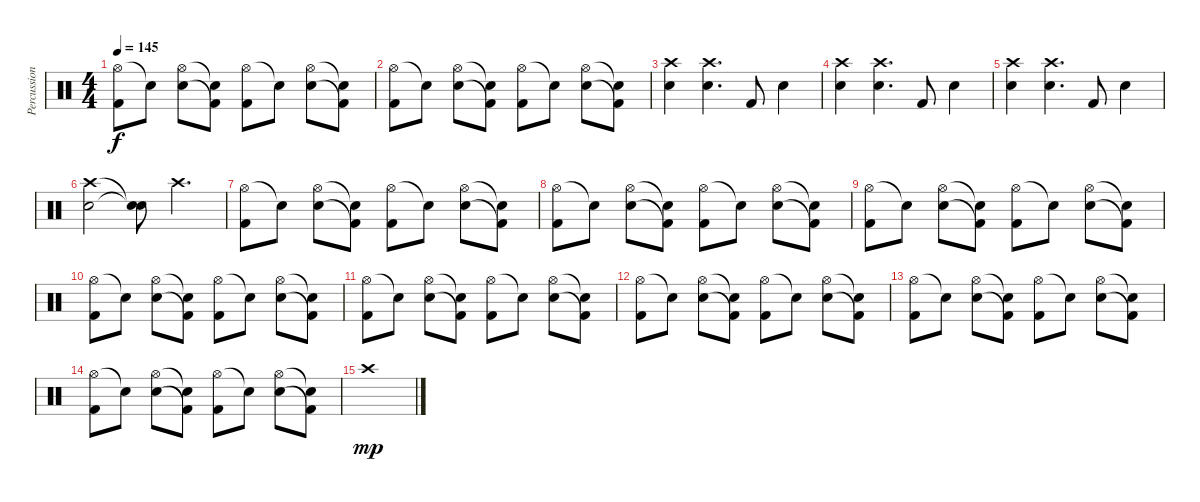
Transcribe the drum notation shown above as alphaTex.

\track ("Percussion" "Percussion") {instrument percussion}
\staff {score}
\articulation defaults
\ts (4 4)
\tempo 145
\clef neutral
\ks c
("Hi-Hat (open)" "Kick (hit) 2").8{dy f} "Snare (hit)"{t}.8 ("Hi-Hat (open)" "Electric Snare (hit)").8 ("Snare (hit)"{t} "Kick (hit) 2"{t}).8 ("Hi-Hat (open)" "Kick (hit) 2").8 "Snare (hit)"{t}.8 ("Hi-Hat (open)" "Electric Snare (hit)").8 ("Snare (hit)"{t} "Kick (hit) 2"{t}).8 |
("Hi-Hat (open)" "Kick (hit) 2").8 "Snare (hit)"{t}.8 ("Hi-Hat (open)" "Electric Snare (hit)").8 ("Snare (hit)"{t} "Kick (hit) 2"{t}).8 ("Hi-Hat (open)" "Kick (hit) 2").8 "Snare (hit)"{t}.8 ("Hi-Hat (open)" "Electric Snare (hit)").8 ("Snare (hit)"{t} "Kick (hit) 2"{t}).8 |
("Crash high (hit)" "Electric Snare (hit)").4 ("Crash high (hit)" "Electric Snare (hit)").4{d} "Kick (hit) 2".8 "Electric Snare (hit)".4 |
("Crash high (hit)" "Electric Snare (hit)").4 ("Crash high (hit)" "Electric Snare (hit)").4{d} "Kick (hit) 2".8 "Electric Snare (hit)".4 |
("Crash high (hit)" "Electric Snare (hit)").4 ("Crash high (hit)" "Electric Snare (hit)").4{d} "Kick (hit) 2".8 "Electric Snare (hit)".4 |
("Crash high (hit)" "Electric Snare (hit)").2 ("Snare (hit)"{t} "Snare (hit)"{t}).8 "Crash high (hit)".4{d} |
("Hi-Hat (open)" "Kick (hit) 2").8 "Snare (hit)"{t}.8 ("Hi-Hat (open)" "Electric Snare (hit)").8 ("Snare (hit)"{t} "Kick (hit) 2"{t}).8 ("Hi-Hat (open)" "Kick (hit) 2").8 "Snare (hit)"{t}.8 ("Hi-Hat (open)" "Electric Snare (hit)").8 ("Snare (hit)"{t} "Kick (hit) 2"{t}).8 |
("Hi-Hat (open)" "Kick (hit) 2").8 "Snare (hit)"{t}.8 ("Hi-Hat (open)" "Electric Snare (hit)").8 ("Snare (hit)"{t} "Kick (hit) 2"{t}).8 ("Hi-Hat (open)" "Kick (hit) 2").8 "Snare (hit)"{t}.8 ("Hi-Hat (open)" "Electric Snare (hit)").8 ("Snare (hit)"{t} "Kick (hit) 2"{t}).8 |
("Hi-Hat (open)" "Kick (hit) 2").8 "Snare (hit)"{t}.8 ("Hi-Hat (open)" "Electric Snare (hit)").8 ("Snare (hit)"{t} "Kick (hit) 2"{t}).8 ("Hi-Hat (open)" "Kick (hit) 2").8 "Snare (hit)"{t}.8 ("Hi-Hat (open)" "Electric Snare (hit)").8 ("Snare (hit)"{t} "Kick (hit) 2"{t}).8 |
("Hi-Hat (open)" "Kick (hit) 2").8 "Snare (hit)"{t}.8 ("Hi-Hat (open)" "Electric Snare (hit)").8 ("Snare (hit)"{t} "Kick (hit) 2"{t}).8 ("Hi-Hat (open)" "Kick (hit) 2").8 "Snare (hit)"{t}.8 ("Hi-Hat (open)" "Electric Snare (hit)").8 ("Snare (hit)"{t} "Kick (hit) 2"{t}).8 |
("Hi-Hat (open)" "Kick (hit) 2").8 "Snare (hit)"{t}.8 ("Hi-Hat (open)" "Electric Snare (hit)").8 ("Snare (hit)"{t} "Kick (hit) 2"{t}).8 ("Hi-Hat (open)" "Kick (hit) 2").8 "Snare (hit)"{t}.8 ("Hi-Hat (open)" "Electric Snare (hit)").8 ("Snare (hit)"{t} "Kick (hit) 2"{t}).8 |
("Hi-Hat (open)" "Kick (hit) 2").8 "Snare (hit)"{t}.8 ("Hi-Hat (open)" "Electric Snare (hit)").8 ("Snare (hit)"{t} "Kick (hit) 2"{t}).8 ("Hi-Hat (open)" "Kick (hit) 2").8 "Snare (hit)"{t}.8 ("Hi-Hat (open)" "Electric Snare (hit)").8 ("Snare (hit)"{t} "Kick (hit) 2"{t}).8 |
("Hi-Hat (open)" "Kick (hit) 2").8 "Snare (hit)"{t}.8 ("Hi-Hat (open)" "Electric Snare (hit)").8 ("Snare (hit)"{t} "Kick (hit) 2"{t}).8 ("Hi-Hat (open)" "Kick (hit) 2").8 "Snare (hit)"{t}.8 ("Hi-Hat (open)" "Electric Snare (hit)").8 ("Snare (hit)"{t} "Kick (hit) 2"{t}).8 |
("Hi-Hat (open)" "Kick (hit) 2").8 "Snare (hit)"{t}.8 ("Hi-Hat (open)" "Electric Snare (hit)").8 ("Snare (hit)"{t} "Kick (hit) 2"{t}).8 ("Hi-Hat (open)" "Kick (hit) 2").8 "Snare (hit)"{t}.8 ("Hi-Hat (open)" "Electric Snare (hit)").8 ("Snare (hit)"{t} "Kick (hit) 2"{t}).8 |
"Crash high (hit)".1{dy mp}
